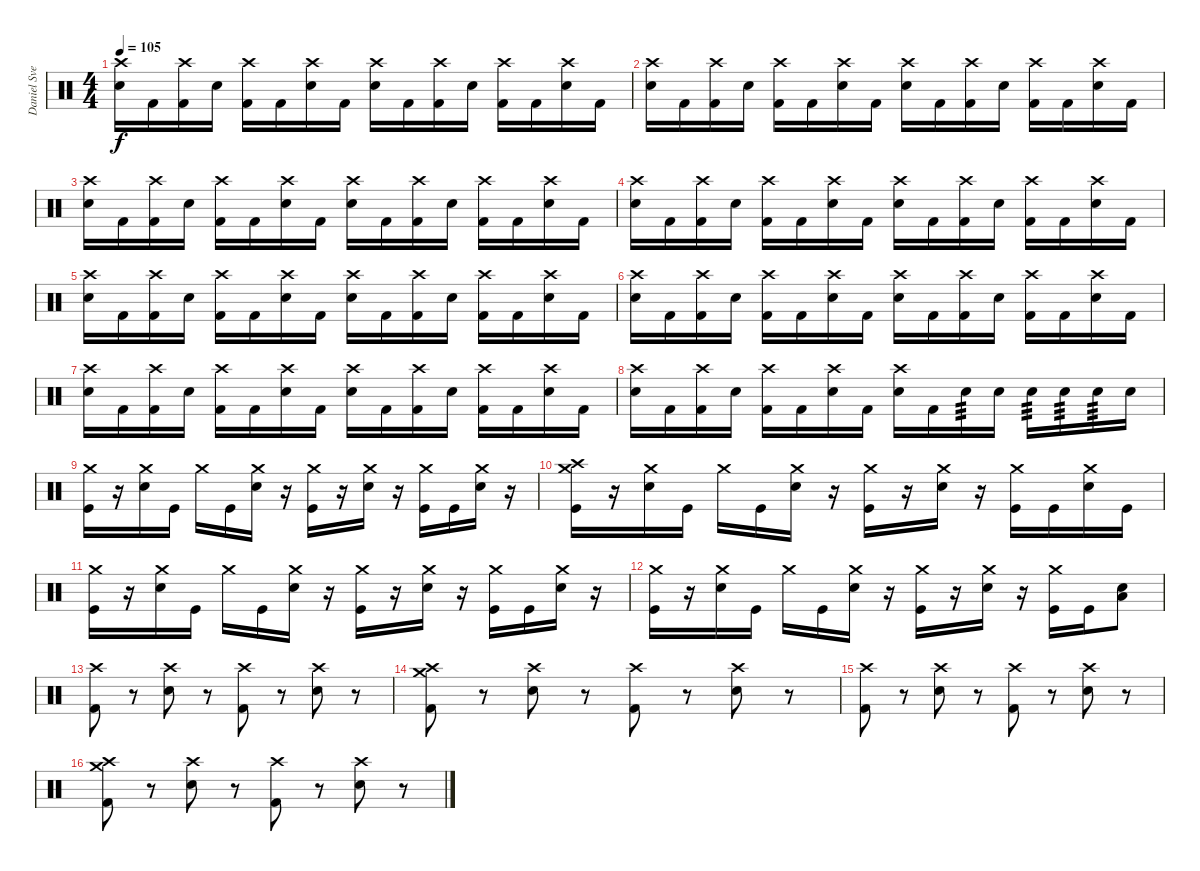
\track ("Daniel Svensson" "Daniel Sve") {instrument percussion}
\staff {score}
\articulation defaults
\ts (4 4)
\tempo 105
\clef neutral
\ks c
("Crash high (hit)" "Electric Snare (hit)").16{dy f} "Kick (hit) 2".16 ("Crash high (hit)" "Kick (hit) 2").16 "Electric Snare (hit)".16 ("Crash high (hit)" "Kick (hit) 2").16 "Kick (hit) 2".16 ("Crash high (hit)" "Electric Snare (hit)").16 "Kick (hit) 2".16 ("Crash high (hit)" "Electric Snare (hit)").16 "Kick (hit) 2".16 ("Crash high (hit)" "Kick (hit) 2").16 "Electric Snare (hit)".16 ("Crash high (hit)" "Kick (hit) 2").16 "Kick (hit) 2".16 ("Crash high (hit)" "Electric Snare (hit)").16 "Kick (hit) 2".16 |
("Crash high (hit)" "Electric Snare (hit)").16 "Kick (hit) 2".16 ("Crash high (hit)" "Kick (hit) 2").16 "Electric Snare (hit)".16 ("Crash high (hit)" "Kick (hit) 2").16 "Kick (hit) 2".16 ("Crash high (hit)" "Electric Snare (hit)").16 "Kick (hit) 2".16 ("Crash high (hit)" "Electric Snare (hit)").16 "Kick (hit) 2".16 ("Crash high (hit)" "Kick (hit) 2").16 "Electric Snare (hit)".16 ("Crash high (hit)" "Kick (hit) 2").16 "Kick (hit) 2".16 ("Crash high (hit)" "Electric Snare (hit)").16 "Kick (hit) 2".16 |
("Crash high (hit)" "Electric Snare (hit)").16 "Kick (hit) 2".16 ("Crash high (hit)" "Kick (hit) 2").16 "Electric Snare (hit)".16 ("Crash high (hit)" "Kick (hit) 2").16 "Kick (hit) 2".16 ("Crash high (hit)" "Electric Snare (hit)").16 "Kick (hit) 2".16 ("Crash high (hit)" "Electric Snare (hit)").16 "Kick (hit) 2".16 ("Crash high (hit)" "Kick (hit) 2").16 "Electric Snare (hit)".16 ("Crash high (hit)" "Kick (hit) 2").16 "Kick (hit) 2".16 ("Crash high (hit)" "Electric Snare (hit)").16 "Kick (hit) 2".16 |
("Crash high (hit)" "Electric Snare (hit)").16 "Kick (hit) 2".16 ("Crash high (hit)" "Kick (hit) 2").16 "Electric Snare (hit)".16 ("Crash high (hit)" "Kick (hit) 2").16 "Kick (hit) 2".16 ("Crash high (hit)" "Electric Snare (hit)").16 "Kick (hit) 2".16 ("Crash high (hit)" "Electric Snare (hit)").16 "Kick (hit) 2".16 ("Crash high (hit)" "Kick (hit) 2").16 "Electric Snare (hit)".16 ("Crash high (hit)" "Kick (hit) 2").16 "Kick (hit) 2".16 ("Crash high (hit)" "Electric Snare (hit)").16 "Kick (hit) 2".16 |
("Crash high (hit)" "Electric Snare (hit)").16 "Kick (hit) 2".16 ("Crash high (hit)" "Kick (hit) 2").16 "Electric Snare (hit)".16 ("Crash high (hit)" "Kick (hit) 2").16 "Kick (hit) 2".16 ("Crash high (hit)" "Electric Snare (hit)").16 "Kick (hit) 2".16 ("Crash high (hit)" "Electric Snare (hit)").16 "Kick (hit) 2".16 ("Crash high (hit)" "Kick (hit) 2").16 "Electric Snare (hit)".16 ("Crash high (hit)" "Kick (hit) 2").16 "Kick (hit) 2".16 ("Crash high (hit)" "Electric Snare (hit)").16 "Kick (hit) 2".16 |
("Crash high (hit)" "Electric Snare (hit)").16 "Kick (hit) 2".16 ("Crash high (hit)" "Kick (hit) 2").16 "Electric Snare (hit)".16 ("Crash high (hit)" "Kick (hit) 2").16 "Kick (hit) 2".16 ("Crash high (hit)" "Electric Snare (hit)").16 "Kick (hit) 2".16 ("Crash high (hit)" "Electric Snare (hit)").16 "Kick (hit) 2".16 ("Crash high (hit)" "Kick (hit) 2").16 "Electric Snare (hit)".16 ("Crash high (hit)" "Kick (hit) 2").16 "Kick (hit) 2".16 ("Crash high (hit)" "Electric Snare (hit)").16 "Kick (hit) 2".16 |
("Crash high (hit)" "Electric Snare (hit)").16 "Kick (hit) 2".16 ("Crash high (hit)" "Kick (hit) 2").16 "Electric Snare (hit)".16 ("Crash high (hit)" "Kick (hit) 2").16 "Kick (hit) 2".16 ("Crash high (hit)" "Electric Snare (hit)").16 "Kick (hit) 2".16 ("Crash high (hit)" "Electric Snare (hit)").16 "Kick (hit) 2".16 ("Crash high (hit)" "Kick (hit) 2").16 "Electric Snare (hit)".16 ("Crash high (hit)" "Kick (hit) 2").16 "Kick (hit) 2".16 ("Crash high (hit)" "Electric Snare (hit)").16 "Kick (hit) 2".16 |
("Crash high (hit)" "Electric Snare (hit)").16 "Kick (hit) 2".16 ("Crash high (hit)" "Kick (hit) 2").16 "Electric Snare (hit)".16 ("Crash high (hit)" "Kick (hit) 2").16 "Kick (hit) 2".16 ("Crash high (hit)" "Electric Snare (hit)").16 "Kick (hit) 2".16 ("Crash high (hit)" "Electric Snare (hit)").16 "Kick (hit) 2".16 "Electric Snare (hit)".16{tp 3} "Electric Snare (hit)".16 "Electric Snare (hit)".16{tp 3} "Electric Snare (hit)".16{tp 3} "Electric Snare (hit)".16{tp 3} "Electric Snare (hit)".16 |
("Crash medium (hit)" "Kick (hit)").16 r.16 ("Crash medium (hit)" "Snare (hit) 2").16 "Kick (hit)".16 "Crash medium (hit)".16 "Kick (hit)".16 ("Crash medium (hit)" "Snare (hit) 2").16 r.16 ("Crash medium (hit)" "Kick (hit)").16 r.16 ("Crash medium (hit)" "Snare (hit) 2").16 r.16 ("Crash medium (hit)" "Kick (hit)").16 "Kick (hit)".16 ("Crash medium (hit)" "Snare (hit) 2").16 r.16 |
("Crash medium (hit)" "Crash high (hit)" "Kick (hit)").16 r.16 ("Crash medium (hit)" "Snare (hit) 2").16 "Kick (hit)".16 "Crash medium (hit)".16 "Kick (hit)".16 ("Crash medium (hit)" "Snare (hit) 2").16 r.16 ("Crash medium (hit)" "Kick (hit)").16 r.16 ("Crash medium (hit)" "Snare (hit) 2").16 r.16 ("Crash medium (hit)" "Kick (hit)").16 "Kick (hit)".16 ("Crash medium (hit)" "Snare (hit) 2").16 "Kick (hit)".16 |
("Crash medium (hit)" "Kick (hit)").16 r.16 ("Crash medium (hit)" "Snare (hit) 2").16 "Kick (hit)".16 "Crash medium (hit)".16 "Kick (hit)".16 ("Crash medium (hit)" "Snare (hit) 2").16 r.16 ("Crash medium (hit)" "Kick (hit)").16 r.16 ("Crash medium (hit)" "Snare (hit) 2").16 r.16 ("Crash medium (hit)" "Kick (hit)").16 "Kick (hit)".16 ("Crash medium (hit)" "Snare (hit) 2").16 r.16 |
("Crash medium (hit)" "Kick (hit)").16 r.16 ("Crash medium (hit)" "Snare (hit) 2").16 "Kick (hit)".16 "Crash medium (hit)".16 "Kick (hit)".16 ("Crash medium (hit)" "Snare (hit) 2").16 r.16 ("Crash medium (hit)" "Kick (hit)").16 r.16 ("Crash medium (hit)" "Snare (hit) 2").16 r.16 ("Crash medium (hit)" "Kick (hit)").16 "Kick (hit)".16 ("Low Tom (hit)" "Electric Snare (hit)").8 |
("Crash high (hit)" "Kick (hit) 2").8 r.8 ("Crash high (hit)" "Electric Snare (hit)").8 r.8 ("Crash high (hit)" "Kick (hit) 2").8 r.8 ("Crash high (hit)" "Electric Snare (hit)").8 r.8 |
("Crash high (hit)" "Crash medium (hit)" "Kick (hit) 2").8 r.8 ("Crash high (hit)" "Electric Snare (hit)").8 r.8 ("Crash high (hit)" "Kick (hit) 2").8 r.8 ("Crash high (hit)" "Electric Snare (hit)").8 r.8 |
("Crash high (hit)" "Kick (hit) 2").8 r.8 ("Crash high (hit)" "Electric Snare (hit)").8 r.8 ("Crash high (hit)" "Kick (hit) 2").8 r.8 ("Crash high (hit)" "Electric Snare (hit)").8 r.8 |
("Crash high (hit)" "Crash medium (hit)" "Kick (hit) 2").8 r.8 ("Crash high (hit)" "Electric Snare (hit)").8 r.8 ("Crash high (hit)" "Kick (hit) 2").8 r.8 ("Crash high (hit)" "Electric Snare (hit)").8 r.8
